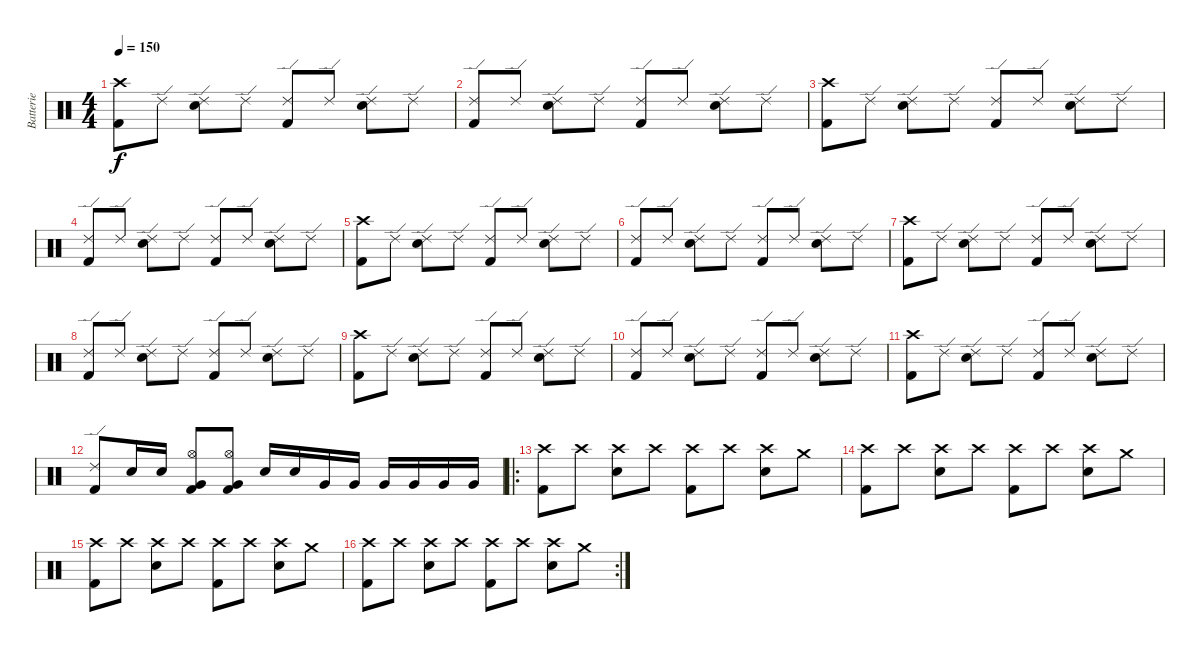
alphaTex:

\track ("Batterie" "Batterie") {instrument percussion}
\staff {score}
\articulation defaults
\ts (4 4)
\tempo 150
\clef neutral
\ks c
("Crash high (hit)" "Kick (hit) 2").8{dy f} "Ride (edge) 2".8 ("Ride (edge) 2" "Snare (hit) 2").8 "Ride (edge) 2".8 ("Ride (edge) 2" "Kick (hit) 2").8 "Ride (edge) 2".8 ("Ride (edge) 2" "Snare (hit) 2").8 "Ride (edge) 2".8 |
("Ride (edge) 2" "Kick (hit) 2").8 "Ride (edge) 2".8 ("Ride (edge) 2" "Snare (hit) 2").8 "Ride (edge) 2".8 ("Ride (edge) 2" "Kick (hit) 2").8 "Ride (edge) 2".8 ("Ride (edge) 2" "Snare (hit) 2").8 "Ride (edge) 2".8 |
("Crash high (hit)" "Kick (hit) 2").8 "Ride (edge) 2".8 ("Ride (edge) 2" "Snare (hit) 2").8 "Ride (edge) 2".8 ("Ride (edge) 2" "Kick (hit) 2").8 "Ride (edge) 2".8 ("Ride (edge) 2" "Snare (hit) 2").8 "Ride (edge) 2".8 |
("Ride (edge) 2" "Kick (hit) 2").8 "Ride (edge) 2".8 ("Ride (edge) 2" "Snare (hit) 2").8 "Ride (edge) 2".8 ("Ride (edge) 2" "Kick (hit) 2").8 "Ride (edge) 2".8 ("Ride (edge) 2" "Snare (hit) 2").8 "Ride (edge) 2".8 |
("Crash high (hit)" "Kick (hit) 2").8 "Ride (edge) 2".8 ("Ride (edge) 2" "Snare (hit) 2").8 "Ride (edge) 2".8 ("Ride (edge) 2" "Kick (hit) 2").8 "Ride (edge) 2".8 ("Ride (edge) 2" "Snare (hit) 2").8 "Ride (edge) 2".8 |
("Ride (edge) 2" "Kick (hit) 2").8 "Ride (edge) 2".8 ("Ride (edge) 2" "Snare (hit) 2").8 "Ride (edge) 2".8 ("Ride (edge) 2" "Kick (hit) 2").8 "Ride (edge) 2".8 ("Ride (edge) 2" "Snare (hit) 2").8 "Ride (edge) 2".8 |
("Crash high (hit)" "Kick (hit) 2").8 "Ride (edge) 2".8 ("Ride (edge) 2" "Snare (hit) 2").8 "Ride (edge) 2".8 ("Ride (edge) 2" "Kick (hit) 2").8 "Ride (edge) 2".8 ("Ride (edge) 2" "Snare (hit) 2").8 "Ride (edge) 2".8 |
("Ride (edge) 2" "Kick (hit) 2").8 "Ride (edge) 2".8 ("Ride (edge) 2" "Snare (hit) 2").8 "Ride (edge) 2".8 ("Ride (edge) 2" "Kick (hit) 2").8 "Ride (edge) 2".8 ("Ride (edge) 2" "Snare (hit) 2").8 "Ride (edge) 2".8 |
("Crash high (hit)" "Kick (hit) 2").8 "Ride (edge) 2".8 ("Ride (edge) 2" "Snare (hit) 2").8 "Ride (edge) 2".8 ("Ride (edge) 2" "Kick (hit) 2").8 "Ride (edge) 2".8 ("Ride (edge) 2" "Snare (hit) 2").8 "Ride (edge) 2".8 |
("Ride (edge) 2" "Kick (hit) 2").8 "Ride (edge) 2".8 ("Ride (edge) 2" "Snare (hit) 2").8 "Ride (edge) 2".8 ("Ride (edge) 2" "Kick (hit) 2").8 "Ride (edge) 2".8 ("Ride (edge) 2" "Snare (hit) 2").8 "Ride (edge) 2".8 |
("Crash high (hit)" "Kick (hit) 2").8 "Ride (edge) 2".8 ("Ride (edge) 2" "Snare (hit) 2").8 "Ride (edge) 2".8 ("Ride (edge) 2" "Kick (hit) 2").8 "Ride (edge) 2".8 ("Ride (edge) 2" "Snare (hit) 2").8 "Ride (edge) 2".8 |
("Ride (edge) 2" "Kick (hit) 2").8 "Snare (hit) 2".16 "Snare (hit) 2".16 ("Hi-Hat (open)" "Very Low Tom (hit)" "Kick (hit) 2").8 ("Hi-Hat (open)" "Very Low Tom (hit)" "Kick (hit) 2").8 "Snare (hit) 2".16 "Snare (hit) 2".16 "Very Low Tom (hit)".16 "Very Low Tom (hit)".16 "Very Low Tom (hit)".16 "Very Low Tom (hit)".16 "Very Low Tom (hit)".16 "Very Low Tom (hit)".16 |
\ro
("Crash high (hit)" "Kick (hit) 2").8 "Crash high (hit)".8 ("Crash high (hit)" "Snare (hit) 2").8 "Crash high (hit)".8 ("Crash high (hit)" "Kick (hit) 2").8 "Crash high (hit)".8 ("Crash high (hit)" "Snare (hit) 2").8 "Crash medium (hit)".8 |
("Crash high (hit)" "Kick (hit) 2").8 "Crash high (hit)".8 ("Crash high (hit)" "Snare (hit) 2").8 "Crash high (hit)".8 ("Crash high (hit)" "Kick (hit) 2").8 "Crash high (hit)".8 ("Crash high (hit)" "Snare (hit) 2").8 "Crash medium (hit)".8 |
("Crash high (hit)" "Kick (hit) 2").8 "Crash high (hit)".8 ("Crash high (hit)" "Snare (hit) 2").8 "Crash high (hit)".8 ("Crash high (hit)" "Kick (hit) 2").8 "Crash high (hit)".8 ("Crash high (hit)" "Snare (hit) 2").8 "Crash medium (hit)".8 |
\rc 2
("Crash high (hit)" "Kick (hit) 2").8 "Crash high (hit)".8 ("Crash high (hit)" "Snare (hit) 2").8 "Crash high (hit)".8 ("Crash high (hit)" "Kick (hit) 2").8 "Crash high (hit)".8 ("Crash high (hit)" "Snare (hit) 2").8 "Crash medium (hit)".8
